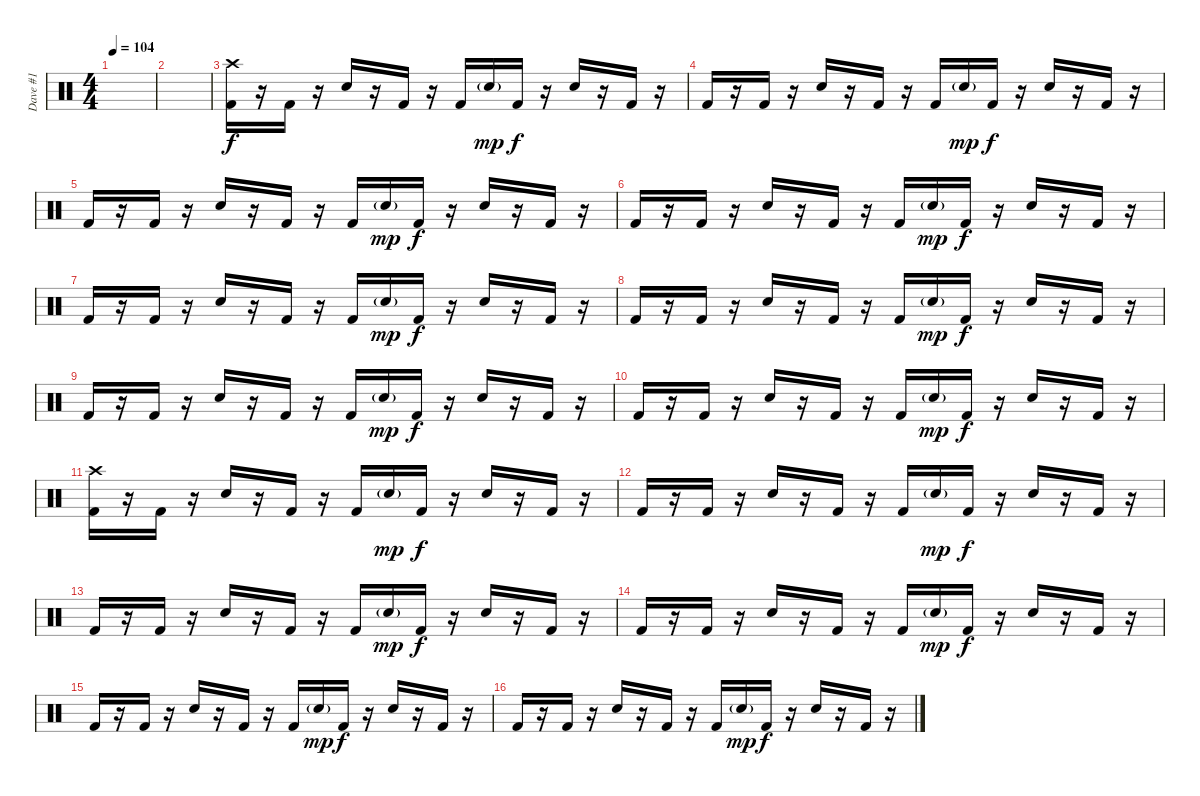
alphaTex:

\track ("Dave #1" "Dave #1") {instrument percussion}
\staff {score}
\articulation defaults
\ts (4 4)
\tempo 104
\clef neutral
\ks c
|
|
("Crash high (hit)" "Kick (hit) 2").16 r.16 "Kick (hit) 2".16 r.16 "Snare (hit) 2".16 r.16 "Kick (hit) 2".16 r.16 "Kick (hit) 2".16 "Snare (hit) 2"{g}.16{dy mp} "Kick (hit) 2".16{dy f} r.16 "Snare (hit) 2".16 r.16 "Kick (hit) 2".16 r.16 |
"Kick (hit) 2".16 r.16 "Kick (hit) 2".16 r.16 "Snare (hit) 2".16 r.16 "Kick (hit) 2".16 r.16 "Kick (hit) 2".16 "Snare (hit) 2"{g}.16{dy mp} "Kick (hit) 2".16{dy f} r.16 "Snare (hit) 2".16 r.16 "Kick (hit) 2".16 r.16 |
"Kick (hit) 2".16 r.16 "Kick (hit) 2".16 r.16 "Snare (hit) 2".16 r.16 "Kick (hit) 2".16 r.16 "Kick (hit) 2".16 "Snare (hit) 2"{g}.16{dy mp} "Kick (hit) 2".16{dy f} r.16 "Snare (hit) 2".16 r.16 "Kick (hit) 2".16 r.16 |
"Kick (hit) 2".16 r.16 "Kick (hit) 2".16 r.16 "Snare (hit) 2".16 r.16 "Kick (hit) 2".16 r.16 "Kick (hit) 2".16 "Snare (hit) 2"{g}.16{dy mp} "Kick (hit) 2".16{dy f} r.16 "Snare (hit) 2".16 r.16 "Kick (hit) 2".16 r.16 |
"Kick (hit) 2".16 r.16 "Kick (hit) 2".16 r.16 "Snare (hit) 2".16 r.16 "Kick (hit) 2".16 r.16 "Kick (hit) 2".16 "Snare (hit) 2"{g}.16{dy mp} "Kick (hit) 2".16{dy f} r.16 "Snare (hit) 2".16 r.16 "Kick (hit) 2".16 r.16 |
"Kick (hit) 2".16 r.16 "Kick (hit) 2".16 r.16 "Snare (hit) 2".16 r.16 "Kick (hit) 2".16 r.16 "Kick (hit) 2".16 "Snare (hit) 2"{g}.16{dy mp} "Kick (hit) 2".16{dy f} r.16 "Snare (hit) 2".16 r.16 "Kick (hit) 2".16 r.16 |
"Kick (hit) 2".16 r.16 "Kick (hit) 2".16 r.16 "Snare (hit) 2".16 r.16 "Kick (hit) 2".16 r.16 "Kick (hit) 2".16 "Snare (hit) 2"{g}.16{dy mp} "Kick (hit) 2".16{dy f} r.16 "Snare (hit) 2".16 r.16 "Kick (hit) 2".16 r.16 |
"Kick (hit) 2".16 r.16 "Kick (hit) 2".16 r.16 "Snare (hit) 2".16 r.16 "Kick (hit) 2".16 r.16 "Kick (hit) 2".16 "Snare (hit) 2"{g}.16{dy mp} "Kick (hit) 2".16{dy f} r.16 "Snare (hit) 2".16 r.16 "Kick (hit) 2".16 r.16 |
("Crash high (hit)" "Kick (hit) 2").16 r.16 "Kick (hit) 2".16 r.16 "Snare (hit) 2".16 r.16 "Kick (hit) 2".16 r.16 "Kick (hit) 2".16 "Snare (hit) 2"{g}.16{dy mp} "Kick (hit) 2".16{dy f} r.16 "Snare (hit) 2".16 r.16 "Kick (hit) 2".16 r.16 |
"Kick (hit) 2".16 r.16 "Kick (hit) 2".16 r.16 "Snare (hit) 2".16 r.16 "Kick (hit) 2".16 r.16 "Kick (hit) 2".16 "Snare (hit) 2"{g}.16{dy mp} "Kick (hit) 2".16{dy f} r.16 "Snare (hit) 2".16 r.16 "Kick (hit) 2".16 r.16 |
"Kick (hit) 2".16 r.16 "Kick (hit) 2".16 r.16 "Snare (hit) 2".16 r.16 "Kick (hit) 2".16 r.16 "Kick (hit) 2".16 "Snare (hit) 2"{g}.16{dy mp} "Kick (hit) 2".16{dy f} r.16 "Snare (hit) 2".16 r.16 "Kick (hit) 2".16 r.16 |
"Kick (hit) 2".16 r.16 "Kick (hit) 2".16 r.16 "Snare (hit) 2".16 r.16 "Kick (hit) 2".16 r.16 "Kick (hit) 2".16 "Snare (hit) 2"{g}.16{dy mp} "Kick (hit) 2".16{dy f} r.16 "Snare (hit) 2".16 r.16 "Kick (hit) 2".16 r.16 |
"Kick (hit) 2".16 r.16 "Kick (hit) 2".16 r.16 "Snare (hit) 2".16 r.16 "Kick (hit) 2".16 r.16 "Kick (hit) 2".16 "Snare (hit) 2"{g}.16{dy mp} "Kick (hit) 2".16{dy f} r.16 "Snare (hit) 2".16 r.16 "Kick (hit) 2".16 r.16 |
"Kick (hit) 2".16 r.16 "Kick (hit) 2".16 r.16 "Snare (hit) 2".16 r.16 "Kick (hit) 2".16 r.16 "Kick (hit) 2".16 "Snare (hit) 2"{g}.16{dy mp} "Kick (hit) 2".16{dy f} r.16 "Snare (hit) 2".16 r.16 "Kick (hit) 2".16 r.16
